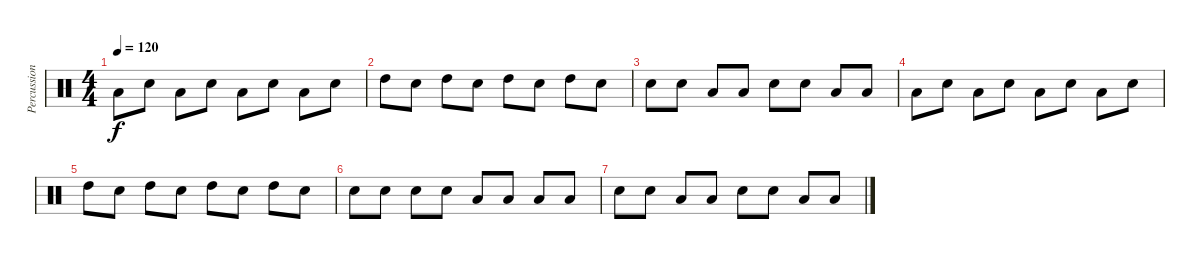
\track ("Percussion" "Percussion") {instrument percussion}
\staff {score}
\articulation defaults
\ts (4 4)
\tempo 120
\clef neutral
\ks c "Low Tom (hit)".8{dy f} "Snare (hit) 2".8 "Low Tom (hit)".8 "Snare (hit) 2".8 "Low Tom (hit)".8 "Snare (hit) 2".8 "Low Tom (hit)".8 "Snare (hit) 2".8
|
"High Tom (hit)".8 "Snare (hit) 2".8 "High Tom (hit)".8 "Snare (hit) 2".8 "High Tom (hit)".8 "Snare (hit) 2".8 "High Tom (hit)".8 "Snare (hit) 2".8 |
"Snare (hit) 2".8 "Snare (hit) 2".8 "Low Tom (hit)".8 "Low Tom (hit)".8 "Snare (hit) 2".8 "Snare (hit) 2".8 "Low Tom (hit)".8 "Low Tom (hit)".8 |
"Low Tom (hit)".8 "Snare (hit) 2".8 "Low Tom (hit)".8 "Snare (hit) 2".8 "Low Tom (hit)".8 "Snare (hit) 2".8 "Low Tom (hit)".8 "Snare (hit) 2".8 |
"High Tom (hit)".8 "Snare (hit) 2".8 "High Tom (hit)".8 "Snare (hit) 2".8 "High Tom (hit)".8 "Snare (hit) 2".8 "High Tom (hit)".8 "Snare (hit) 2".8 |
"Snare (hit) 2".8 "Snare (hit) 2".8 "Snare (hit) 2".8 "Snare (hit) 2".8 "Low Tom (hit)".8 "Low Tom (hit)".8 "Low Tom (hit)".8 "Low Tom (hit)".8 |
"Snare (hit) 2".8 "Snare (hit) 2".8 "Low Tom (hit)".8 "Low Tom (hit)".8 "Snare (hit) 2".8 "Snare (hit) 2".8 "Low Tom (hit)".8 "Low Tom (hit)".8
